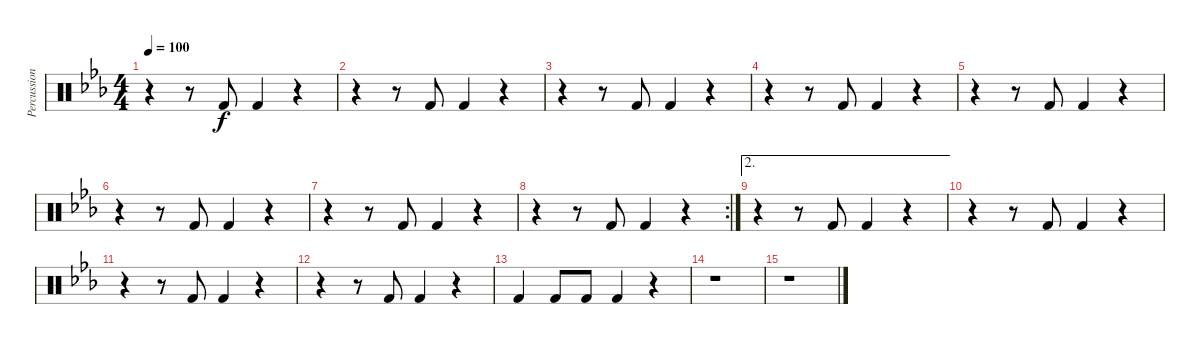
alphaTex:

\track ("Percussion" "Percussion") {instrument percussion}
\staff {score}
\articulation defaults
\ts (4 4)
\tempo 100
\clef neutral
\ks cminor
r.4{dy f} r.8 "Kick (hit) 2".8 "Kick (hit) 2".4 r.4 |
r.4 r.8 "Kick (hit) 2".8 "Kick (hit) 2".4 r.4 |
r.4 r.8 "Kick (hit) 2".8 "Kick (hit) 2".4 r.4 |
r.4 r.8 "Kick (hit) 2".8 "Kick (hit) 2".4 r.4 |
r.4 r.8 "Kick (hit) 2".8 "Kick (hit) 2".4 r.4 |
r.4 r.8 "Kick (hit) 2".8 "Kick (hit) 2".4 r.4 |
r.4 r.8 "Kick (hit) 2".8 "Kick (hit) 2".4 r.4 |
\rc 2
r.4 r.8 "Kick (hit) 2".8 "Kick (hit) 2".4 r.4 |
\ae 2
r.4 r.8 "Kick (hit) 2".8 "Kick (hit) 2".4 r.4 |
r.4 r.8 "Kick (hit) 2".8 "Kick (hit) 2".4 r.4 |
r.4 r.8 "Kick (hit) 2".8 "Kick (hit) 2".4 r.4 |
r.4 r.8 "Kick (hit) 2".8 "Kick (hit) 2".4 r.4 |
"Kick (hit) 2".4 "Kick (hit) 2".8 "Kick (hit) 2".8 "Kick (hit) 2".4 r.4 |
r.1 |
r.1
